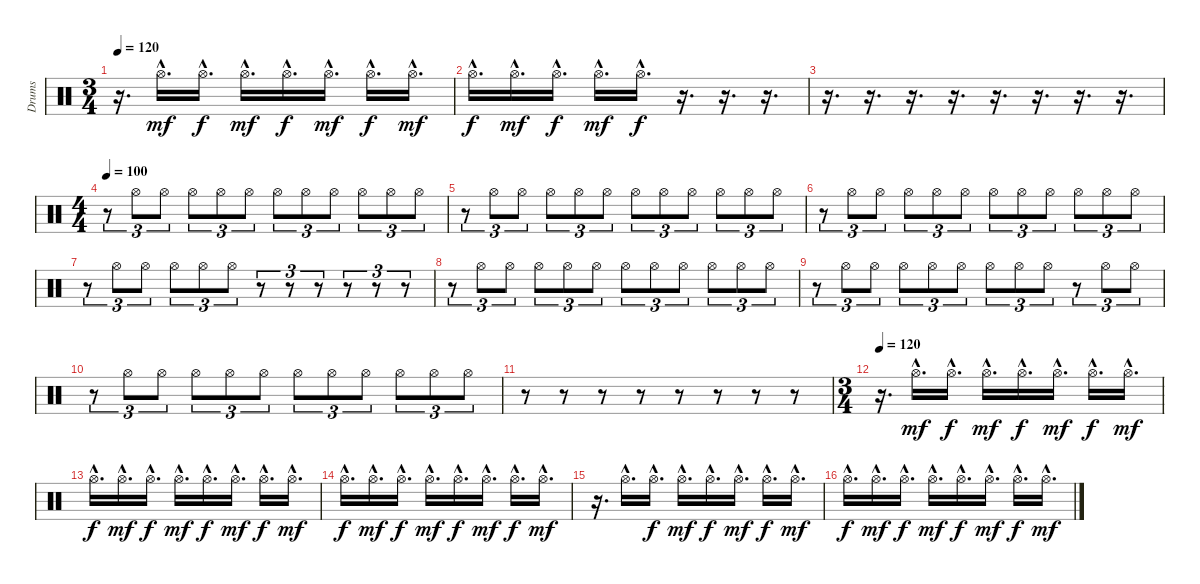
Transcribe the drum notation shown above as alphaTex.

\track ("Drums" "Drums") {instrument percussion}
\staff {score}
\articulation defaults
\ts (3 4)
\tempo 120
\clef neutral
\ks c
r.16{d dy mf} "Hi-Hat (open)"{hac}.16{d} "Hi-Hat (open)"{hac}.16{d dy f} "Hi-Hat (open)"{hac}.16{d dy mf} "Hi-Hat (open)"{hac}.16{d dy f} "Hi-Hat (open)"{hac}.16{d dy mf} "Hi-Hat (open)"{hac}.16{d dy f} "Hi-Hat (open)"{hac}.16{d dy mf} |
"Hi-Hat (open)"{hac}.16{d dy f} "Hi-Hat (open)"{hac}.16{d dy mf} "Hi-Hat (open)"{hac}.16{d dy f} "Hi-Hat (open)"{hac}.16{d dy mf} "Hi-Hat (open)"{hac}.16{d dy f} r.16{d} r.16{d} r.16{d} |
r.16{d} r.16{d} r.16{d} r.16{d} r.16{d} r.16{d} r.16{d} r.16{d} |
\ts (4 4)
\section ("" "")
\tempo 100
r.8{tu (3 2)} "Hi-Hat (open)".8{tu (3 2)} "Hi-Hat (open)".8{tu (3 2)} "Hi-Hat (open)".8{tu (3 2)} "Hi-Hat (open)".8{tu (3 2)} "Hi-Hat (open)".8{tu (3 2)} "Hi-Hat (open)".8{tu (3 2)} "Hi-Hat (open)".8{tu (3 2)} "Hi-Hat (open)".8{tu (3 2)} "Hi-Hat (open)".8{tu (3 2)} "Hi-Hat (open)".8{tu (3 2)} "Hi-Hat (open)".8{tu (3 2)} |
r.8{tu (3 2)} "Hi-Hat (open)".8{tu (3 2)} "Hi-Hat (open)".8{tu (3 2)} "Hi-Hat (open)".8{tu (3 2)} "Hi-Hat (open)".8{tu (3 2)} "Hi-Hat (open)".8{tu (3 2)} "Hi-Hat (open)".8{tu (3 2)} "Hi-Hat (open)".8{tu (3 2)} "Hi-Hat (open)".8{tu (3 2)} "Hi-Hat (open)".8{tu (3 2)} "Hi-Hat (open)".8{tu (3 2)} "Hi-Hat (open)".8{tu (3 2)} |
r.8{tu (3 2)} "Hi-Hat (open)".8{tu (3 2)} "Hi-Hat (open)".8{tu (3 2)} "Hi-Hat (open)".8{tu (3 2)} "Hi-Hat (open)".8{tu (3 2)} "Hi-Hat (open)".8{tu (3 2)} "Hi-Hat (open)".8{tu (3 2)} "Hi-Hat (open)".8{tu (3 2)} "Hi-Hat (open)".8{tu (3 2)} "Hi-Hat (open)".8{tu (3 2)} "Hi-Hat (open)".8{tu (3 2)} "Hi-Hat (open)".8{tu (3 2)} |
r.8{tu (3 2)} "Hi-Hat (open)".8{tu (3 2)} "Hi-Hat (open)".8{tu (3 2)} "Hi-Hat (open)".8{tu (3 2)} "Hi-Hat (open)".8{tu (3 2)} "Hi-Hat (open)".8{tu (3 2)} r.8{tu (3 2)} r.8{tu (3 2)} r.8{tu (3 2)} r.8{tu (3 2)} r.8{tu (3 2)} r.8{tu (3 2)} |
r.8{tu (3 2)} "Hi-Hat (open)".8{tu (3 2)} "Hi-Hat (open)".8{tu (3 2)} "Hi-Hat (open)".8{tu (3 2)} "Hi-Hat (open)".8{tu (3 2)} "Hi-Hat (open)".8{tu (3 2)} "Hi-Hat (open)".8{tu (3 2)} "Hi-Hat (open)".8{tu (3 2)} "Hi-Hat (open)".8{tu (3 2)} "Hi-Hat (open)".8{tu (3 2)} "Hi-Hat (open)".8{tu (3 2)} "Hi-Hat (open)".8{tu (3 2)} |
r.8{tu (3 2)} "Hi-Hat (open)".8{tu (3 2)} "Hi-Hat (open)".8{tu (3 2)} "Hi-Hat (open)".8{tu (3 2)} "Hi-Hat (open)".8{tu (3 2)} "Hi-Hat (open)".8{tu (3 2)} "Hi-Hat (open)".8{tu (3 2)} "Hi-Hat (open)".8{tu (3 2)} "Hi-Hat (open)".8{tu (3 2)} r.8{tu (3 2)} "Hi-Hat (open)".8{tu (3 2)} "Hi-Hat (open)".8{tu (3 2)} |
r.8{tu (3 2)} "Hi-Hat (open)".8{tu (3 2)} "Hi-Hat (open)".8{tu (3 2)} "Hi-Hat (open)".8{tu (3 2)} "Hi-Hat (open)".8{tu (3 2)} "Hi-Hat (open)".8{tu (3 2)} "Hi-Hat (open)".8{tu (3 2)} "Hi-Hat (open)".8{tu (3 2)} "Hi-Hat (open)".8{tu (3 2)} "Hi-Hat (open)".8{tu (3 2)} "Hi-Hat (open)".8{tu (3 2)} "Hi-Hat (open)".8{tu (3 2)} |
r.8 r.8 r.8 r.8 r.8 r.8 r.8 r.8 |
\ts (3 4)
\section ("" "")
\tempo 120
r.16{d} "Hi-Hat (open)"{hac}.16{d dy mf} "Hi-Hat (open)"{hac}.16{d dy f} "Hi-Hat (open)"{hac}.16{d dy mf} "Hi-Hat (open)"{hac}.16{d dy f} "Hi-Hat (open)"{hac}.16{d dy mf} "Hi-Hat (open)"{hac}.16{d dy f} "Hi-Hat (open)"{hac}.16{d dy mf} |
"Hi-Hat (open)"{hac}.16{d dy f} "Hi-Hat (open)"{hac}.16{d dy mf} "Hi-Hat (open)"{hac}.16{d dy f} "Hi-Hat (open)"{hac}.16{d dy mf} "Hi-Hat (open)"{hac}.16{d dy f} "Hi-Hat (open)"{hac}.16{d dy mf} "Hi-Hat (open)"{hac}.16{d dy f} "Hi-Hat (open)"{hac}.16{d dy mf} |
"Hi-Hat (open)"{hac}.16{d dy f} "Hi-Hat (open)"{hac}.16{d dy mf} "Hi-Hat (open)"{hac}.16{d dy f} "Hi-Hat (open)"{hac}.16{d dy mf} "Hi-Hat (open)"{hac}.16{d dy f} "Hi-Hat (open)"{hac}.16{d dy mf} "Hi-Hat (open)"{hac}.16{d dy f} "Hi-Hat (open)"{hac}.16{d dy mf} |
r.16{d} "Hi-Hat (open)"{hac}.16{d} "Hi-Hat (open)"{hac}.16{d dy f} "Hi-Hat (open)"{hac}.16{d dy mf} "Hi-Hat (open)"{hac}.16{d dy f} "Hi-Hat (open)"{hac}.16{d dy mf} "Hi-Hat (open)"{hac}.16{d dy f} "Hi-Hat (open)"{hac}.16{d dy mf} |
"Hi-Hat (open)"{hac}.16{d dy f} "Hi-Hat (open)"{hac}.16{d dy mf} "Hi-Hat (open)"{hac}.16{d dy f} "Hi-Hat (open)"{hac}.16{d dy mf} "Hi-Hat (open)"{hac}.16{d dy f} "Hi-Hat (open)"{hac}.16{d dy mf} "Hi-Hat (open)"{hac}.16{d dy f} "Hi-Hat (open)"{hac}.16{d dy mf}
